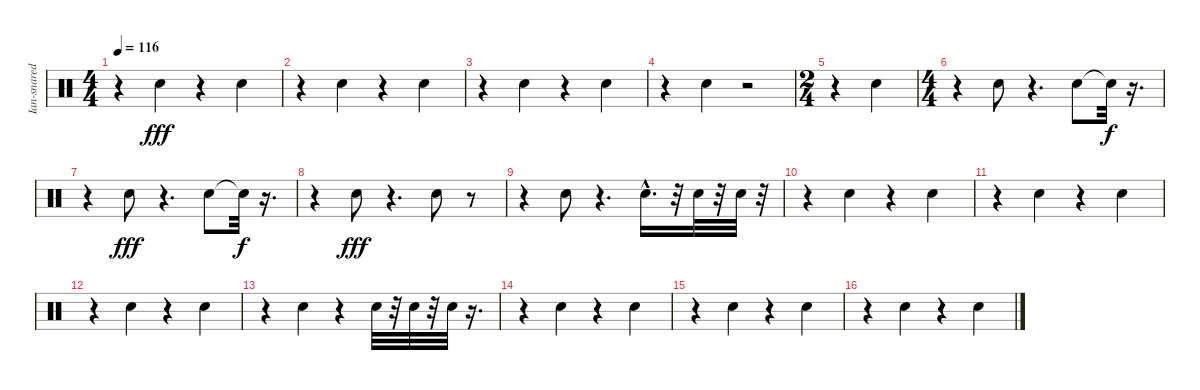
\track ("Ian-snaredrum" "Ian-snared") {instrument percussion}
\staff {score}
\articulation defaults
\ts (4 4)
\tempo 116
\clef neutral
\ks c
r.4{dy fff} "Electric Snare (hit)".4 r.4 "Electric Snare (hit)".4 |
r.4 "Electric Snare (hit)".4 r.4 "Electric Snare (hit)".4 |
r.4 "Electric Snare (hit)".4 r.4 "Electric Snare (hit)".4 |
r.4 "Electric Snare (hit)".4 r.2 |
\ts (2 4)
r.4 "Electric Snare (hit)".4 |
\ts (4 4)
r.4 "Electric Snare (hit)".8 r.4{d} "Electric Snare (hit)".8 "Snare (hit)"{t}.32{dy f} r.16{d} |
r.4 "Electric Snare (hit)".8{dy fff} r.4{d} "Electric Snare (hit)".8 "Snare (hit)"{t}.32{dy f} r.16{d} |
r.4 "Electric Snare (hit)".8{dy fff} r.4{d} "Electric Snare (hit)".8 r.8 |
r.4 "Electric Snare (hit)".8 r.4{d} "Electric Snare (hit)"{hac}.16{d} r.32 "Electric Snare (hit)".32 r.32 "Electric Snare (hit)".32 r.32 |
r.4 "Electric Snare (hit)".4 r.4 "Electric Snare (hit)".4 |
r.4 "Electric Snare (hit)".4 r.4 "Electric Snare (hit)".4 |
r.4 "Electric Snare (hit)".4 r.4 "Electric Snare (hit)".4 |
r.4 "Electric Snare (hit)".4 r.4 "Electric Snare (hit)".32 r.32 "Electric Snare (hit)".32 r.32 "Electric Snare (hit)".32 r.16{d} |
r.4 "Electric Snare (hit)".4 r.4 "Electric Snare (hit)".4 |
r.4 "Electric Snare (hit)".4 r.4 "Electric Snare (hit)".4 |
r.4 "Electric Snare (hit)".4 r.4 "Electric Snare (hit)".4
